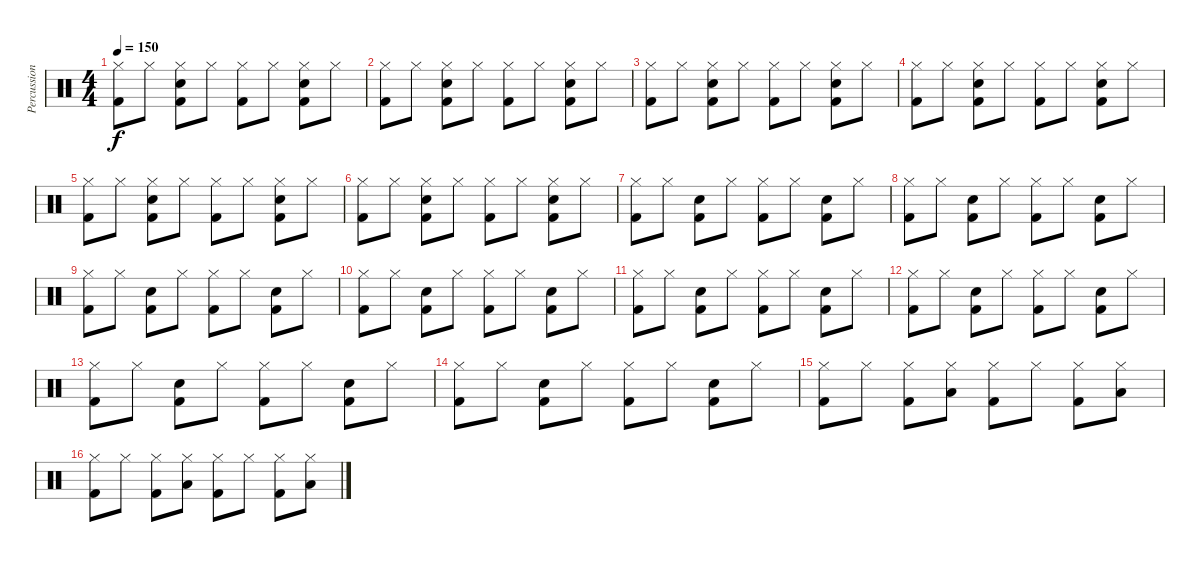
\track ("Percussion" "Percussion") {instrument percussion}
\staff {score}
\articulation defaults
\ts (4 4)
\tempo 150
\clef neutral
\ks c
("Hi-Hat (closed)" "Kick (hit) 2").8{dy f} "Hi-Hat (closed)".8 ("Hi-Hat (closed)" "Snare (hit) 2" "Kick (hit) 2").8 "Hi-Hat (closed)".8 ("Hi-Hat (closed)" "Kick (hit) 2").8 "Hi-Hat (closed)".8 ("Hi-Hat (closed)" "Snare (hit) 2" "Kick (hit) 2").8 "Hi-Hat (closed)".8 |
("Hi-Hat (closed)" "Kick (hit) 2").8 "Hi-Hat (closed)".8 ("Hi-Hat (closed)" "Snare (hit) 2" "Kick (hit) 2").8 "Hi-Hat (closed)".8 ("Hi-Hat (closed)" "Kick (hit) 2").8 "Hi-Hat (closed)".8 ("Hi-Hat (closed)" "Snare (hit) 2" "Kick (hit) 2").8 "Hi-Hat (closed)".8 |
("Hi-Hat (closed)" "Kick (hit) 2").8 "Hi-Hat (closed)".8 ("Hi-Hat (closed)" "Snare (hit) 2" "Kick (hit) 2").8 "Hi-Hat (closed)".8 ("Hi-Hat (closed)" "Kick (hit) 2").8 "Hi-Hat (closed)".8 ("Hi-Hat (closed)" "Snare (hit) 2" "Kick (hit) 2").8 "Hi-Hat (closed)".8 |
("Hi-Hat (closed)" "Kick (hit) 2").8 "Hi-Hat (closed)".8 ("Hi-Hat (closed)" "Snare (hit) 2" "Kick (hit) 2").8 "Hi-Hat (closed)".8 ("Hi-Hat (closed)" "Kick (hit) 2").8 "Hi-Hat (closed)".8 ("Hi-Hat (closed)" "Snare (hit) 2" "Kick (hit) 2").8 "Hi-Hat (closed)".8 |
("Hi-Hat (closed)" "Kick (hit) 2").8 "Hi-Hat (closed)".8 ("Hi-Hat (closed)" "Snare (hit) 2" "Kick (hit) 2").8 "Hi-Hat (closed)".8 ("Hi-Hat (closed)" "Kick (hit) 2").8 "Hi-Hat (closed)".8 ("Hi-Hat (closed)" "Snare (hit) 2" "Kick (hit) 2").8 "Hi-Hat (closed)".8 |
("Hi-Hat (closed)" "Kick (hit) 2").8 "Hi-Hat (closed)".8 ("Hi-Hat (closed)" "Snare (hit) 2" "Kick (hit) 2").8 "Hi-Hat (closed)".8 ("Hi-Hat (closed)" "Kick (hit) 2").8 "Hi-Hat (closed)".8 ("Hi-Hat (closed)" "Snare (hit) 2" "Kick (hit) 2").8 "Hi-Hat (closed)".8 |
("Hi-Hat (closed)" "Kick (hit) 2").8 "Hi-Hat (closed)".8 ("Snare (hit) 2" "Kick (hit) 2").8 "Hi-Hat (closed)".8 ("Hi-Hat (closed)" "Kick (hit) 2").8 "Hi-Hat (closed)".8 ("Snare (hit) 2" "Kick (hit) 2").8 "Hi-Hat (closed)".8 |
("Hi-Hat (closed)" "Kick (hit) 2").8 "Hi-Hat (closed)".8 ("Snare (hit) 2" "Kick (hit) 2").8 "Hi-Hat (closed)".8 ("Hi-Hat (closed)" "Kick (hit) 2").8 "Hi-Hat (closed)".8 ("Snare (hit) 2" "Kick (hit) 2").8 "Hi-Hat (closed)".8 |
("Hi-Hat (closed)" "Kick (hit) 2").8 "Hi-Hat (closed)".8 ("Snare (hit) 2" "Kick (hit) 2").8 "Hi-Hat (closed)".8 ("Hi-Hat (closed)" "Kick (hit) 2").8 "Hi-Hat (closed)".8 ("Snare (hit) 2" "Kick (hit) 2").8 "Hi-Hat (closed)".8 |
("Hi-Hat (closed)" "Kick (hit) 2").8 "Hi-Hat (closed)".8 ("Snare (hit) 2" "Kick (hit) 2").8 "Hi-Hat (closed)".8 ("Hi-Hat (closed)" "Kick (hit) 2").8 "Hi-Hat (closed)".8 ("Snare (hit) 2" "Kick (hit) 2").8 "Hi-Hat (closed)".8 |
("Hi-Hat (closed)" "Kick (hit) 2").8 "Hi-Hat (closed)".8 ("Snare (hit) 2" "Kick (hit) 2").8 "Hi-Hat (closed)".8 ("Hi-Hat (closed)" "Kick (hit) 2").8 "Hi-Hat (closed)".8 ("Snare (hit) 2" "Kick (hit) 2").8 "Hi-Hat (closed)".8 |
("Hi-Hat (closed)" "Kick (hit) 2").8 "Hi-Hat (closed)".8 ("Snare (hit) 2" "Kick (hit) 2").8 "Hi-Hat (closed)".8 ("Hi-Hat (closed)" "Kick (hit) 2").8 "Hi-Hat (closed)".8 ("Snare (hit) 2" "Kick (hit) 2").8 "Hi-Hat (closed)".8 |
("Hi-Hat (closed)" "Kick (hit) 2").8 "Hi-Hat (closed)".8 ("Snare (hit) 2" "Kick (hit) 2").8 "Hi-Hat (closed)".8 ("Hi-Hat (closed)" "Kick (hit) 2").8 "Hi-Hat (closed)".8 ("Snare (hit) 2" "Kick (hit) 2").8 "Hi-Hat (closed)".8 |
("Hi-Hat (closed)" "Kick (hit) 2").8 "Hi-Hat (closed)".8 ("Snare (hit) 2" "Kick (hit) 2").8 "Hi-Hat (closed)".8 ("Hi-Hat (closed)" "Kick (hit) 2").8 "Hi-Hat (closed)".8 ("Snare (hit) 2" "Kick (hit) 2").8 "Hi-Hat (closed)".8 |
("Hi-Hat (closed)" "Kick (hit) 2").8 "Hi-Hat (closed)".8 ("Hi-Hat (closed)" "Kick (hit) 2").8 ("Hi-Hat (closed)" "Low Floor Tom (hit)").8 ("Hi-Hat (closed)" "Kick (hit) 2").8 "Hi-Hat (closed)".8 ("Hi-Hat (closed)" "Kick (hit) 2").8 ("Hi-Hat (closed)" "Low Floor Tom (hit)").8 |
("Hi-Hat (closed)" "Kick (hit) 2").8 "Hi-Hat (closed)".8 ("Hi-Hat (closed)" "Kick (hit) 2").8 ("Hi-Hat (closed)" "Low Floor Tom (hit)").8 ("Hi-Hat (closed)" "Kick (hit) 2").8 "Hi-Hat (closed)".8 ("Hi-Hat (closed)" "Kick (hit) 2").8 ("Hi-Hat (closed)" "Low Floor Tom (hit)").8
